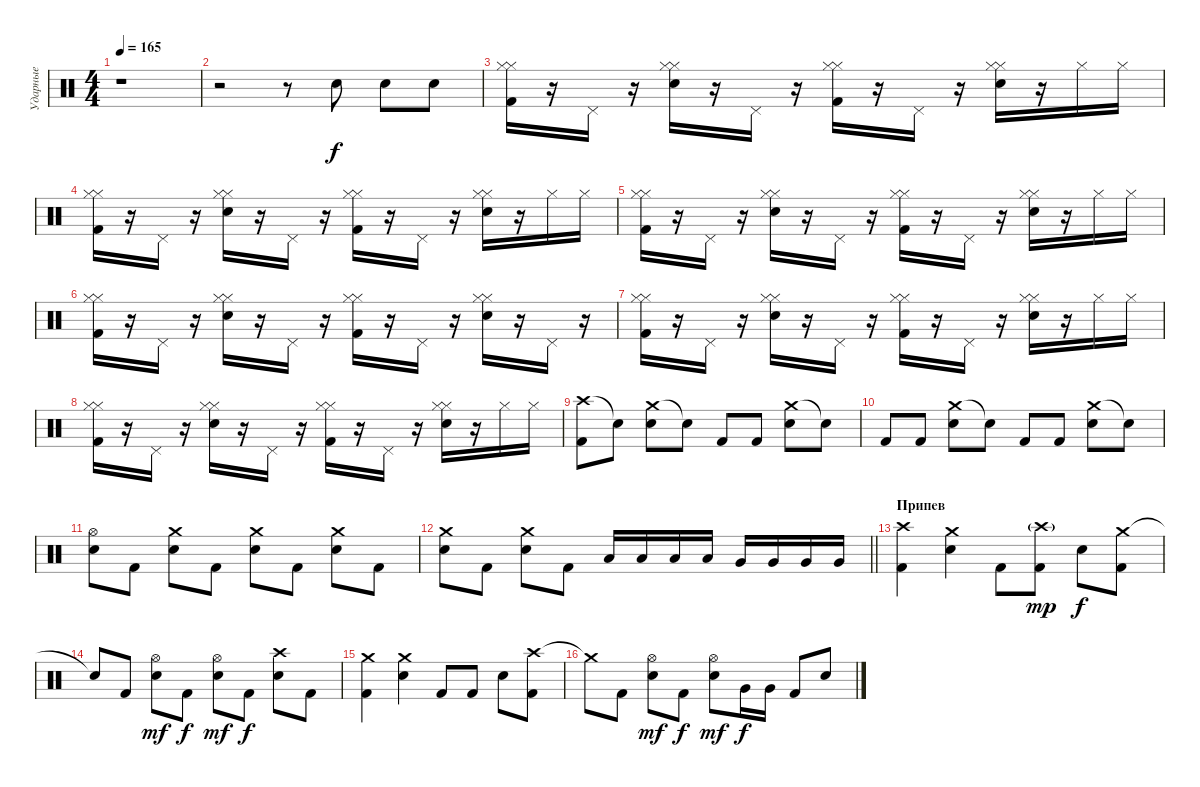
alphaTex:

\track ("Ударные" "Ударные") {instrument percussion}
\staff {score}
\articulation defaults
\ts (4 4)
\tempo 165
\clef neutral
\ks c
r.1{dy mp} |
r.2 r.8 "Snare (hit) 2".8{dy f} "Snare (hit) 2".8 "Snare (hit) 2".8 |
("Hi-Hat (closed)" "Hi-Hat (closed)" "Kick (hit) 2").16 r.16 "Pedal Hi-Hat (hit)".16 r.16 ("Hi-Hat (closed)" "Hi-Hat (closed)" "Snare (hit) 2").16 r.16 "Pedal Hi-Hat (hit)".16 r.16 ("Hi-Hat (closed)" "Hi-Hat (closed)" "Kick (hit) 2").16 r.16 "Pedal Hi-Hat (hit)".16 r.16 ("Hi-Hat (closed)" "Hi-Hat (closed)" "Snare (hit) 2").16 r.16 "Hi-Hat (closed)".16 "Hi-Hat (closed)".16 |
("Hi-Hat (closed)" "Hi-Hat (closed)" "Kick (hit) 2").16 r.16 "Pedal Hi-Hat (hit)".16 r.16 ("Hi-Hat (closed)" "Hi-Hat (closed)" "Snare (hit) 2").16 r.16 "Pedal Hi-Hat (hit)".16 r.16 ("Hi-Hat (closed)" "Hi-Hat (closed)" "Kick (hit) 2").16 r.16 "Pedal Hi-Hat (hit)".16 r.16 ("Hi-Hat (closed)" "Hi-Hat (closed)" "Snare (hit) 2").16 r.16 "Hi-Hat (closed)".16 "Hi-Hat (closed)".16 |
("Hi-Hat (closed)" "Hi-Hat (closed)" "Kick (hit) 2").16 r.16 "Pedal Hi-Hat (hit)".16 r.16 ("Hi-Hat (closed)" "Hi-Hat (closed)" "Snare (hit) 2").16 r.16 "Pedal Hi-Hat (hit)".16 r.16 ("Hi-Hat (closed)" "Hi-Hat (closed)" "Kick (hit) 2").16 r.16 "Pedal Hi-Hat (hit)".16 r.16 ("Hi-Hat (closed)" "Hi-Hat (closed)" "Snare (hit) 2").16 r.16 "Hi-Hat (closed)".16 "Hi-Hat (closed)".16 |
("Hi-Hat (closed)" "Hi-Hat (closed)" "Kick (hit) 2").16 r.16 "Pedal Hi-Hat (hit)".16 r.16 ("Hi-Hat (closed)" "Hi-Hat (closed)" "Snare (hit) 2").16 r.16 "Pedal Hi-Hat (hit)".16 r.16 ("Hi-Hat (closed)" "Hi-Hat (closed)" "Kick (hit) 2").16 r.16 "Pedal Hi-Hat (hit)".16 r.16 ("Hi-Hat (closed)" "Hi-Hat (closed)" "Snare (hit) 2").16 r.16 "Pedal Hi-Hat (hit)".16 r.16 |
("Hi-Hat (closed)" "Hi-Hat (closed)" "Kick (hit) 2").16 r.16 "Pedal Hi-Hat (hit)".16 r.16 ("Hi-Hat (closed)" "Hi-Hat (closed)" "Snare (hit) 2").16 r.16 "Pedal Hi-Hat (hit)".16 r.16 ("Hi-Hat (closed)" "Hi-Hat (closed)" "Kick (hit) 2").16 r.16 "Pedal Hi-Hat (hit)".16 r.16 ("Hi-Hat (closed)" "Hi-Hat (closed)" "Snare (hit) 2").16 r.16 "Hi-Hat (closed)".16 "Hi-Hat (closed)".16 |
("Hi-Hat (closed)" "Hi-Hat (closed)" "Kick (hit) 2").16 r.16 "Pedal Hi-Hat (hit)".16 r.16 ("Hi-Hat (closed)" "Hi-Hat (closed)" "Snare (hit) 2").16 r.16 "Pedal Hi-Hat (hit)".16 r.16 ("Hi-Hat (closed)" "Hi-Hat (closed)" "Kick (hit) 2").16 r.16 "Pedal Hi-Hat (hit)".16 r.16 ("Hi-Hat (closed)" "Hi-Hat (closed)" "Snare (hit) 2").16 r.16 "Hi-Hat (closed)".16 "Hi-Hat (closed)".16 |
("Crash high (hit)" "Kick (hit) 2").8 "Snare (hit)"{t}.8 ("Crash medium (hit)" "Snare (hit) 2").8 "Snare (hit)"{t}.8 "Kick (hit) 2".8 "Kick (hit) 2".8 ("Crash medium (hit)" "Snare (hit) 2").8 "Snare (hit)"{t}.8 |
"Kick (hit) 2".8 "Kick (hit) 2".8 ("Crash medium (hit)" "Snare (hit) 2").8 "Snare (hit)"{t}.8 "Kick (hit) 2".8 "Kick (hit) 2".8 ("Crash medium (hit)" "Snare (hit) 2").8 "Snare (hit)"{t}.8 |
("Hi-Hat (open)" "Snare (hit) 2").8 "Kick (hit) 2".8 ("Crash medium (hit)" "Snare (hit) 2").8 "Kick (hit) 2".8 ("Crash medium (hit)" "Snare (hit) 2").8 "Kick (hit) 2".8 ("Crash medium (hit)" "Snare (hit) 2").8 "Kick (hit) 2".8 |
\barLineRight lightlight
("Crash medium (hit)" "Snare (hit) 2").8 "Kick (hit) 2".8 ("Crash medium (hit)" "Snare (hit) 2").8 "Kick (hit) 2".8 "Low Tom (hit)".16 "Low Tom (hit)".16 "Low Tom (hit)".16 "Low Tom (hit)".16 "Very Low Tom (hit)".16 "Very Low Tom (hit)".16 "Very Low Tom (hit)".16 "Very Low Tom (hit)".16 |
\section ("" "Припев")
("Crash high (hit)" "Kick (hit) 2").4 ("Crash medium (hit)" "Snare (hit) 2").4 "Kick (hit) 2".8 ("Crash high (hit)"{g} "Kick (hit) 2").8{dy mp} "Snare (hit) 2".8{dy f} ("Crash medium (hit)" "Kick (hit) 2").8 |
"Snare (hit)"{t}.8 "Kick (hit) 2".8 ("Hi-Hat (open)" "Snare (hit) 2").8{dy mf} "Kick (hit) 2".8{dy f} ("Hi-Hat (open)" "Snare (hit) 2").8{dy mf} "Kick (hit) 2".8{dy f} ("Crash high (hit)" "Snare (hit) 2").8 "Kick (hit) 2".8 |
("Crash medium (hit)" "Kick (hit) 2").4 ("Crash medium (hit)" "Snare (hit) 2").4 "Kick (hit) 2".8 "Kick (hit) 2".8 "Snare (hit) 2".8 ("Crash high (hit)" "Kick (hit) 2").8 |
"Crash medium (hit)"{t}.8 "Kick (hit) 2".8 ("Hi-Hat (open)" "Snare (hit) 2").8{dy mf} "Kick (hit) 2".8{dy f} ("Hi-Hat (open)" "Snare (hit) 2").8{dy mf} "Very Low Tom (hit)".16{dy f} "Very Low Tom (hit)".16 "Kick (hit) 2".8 "Snare (hit) 2".8
